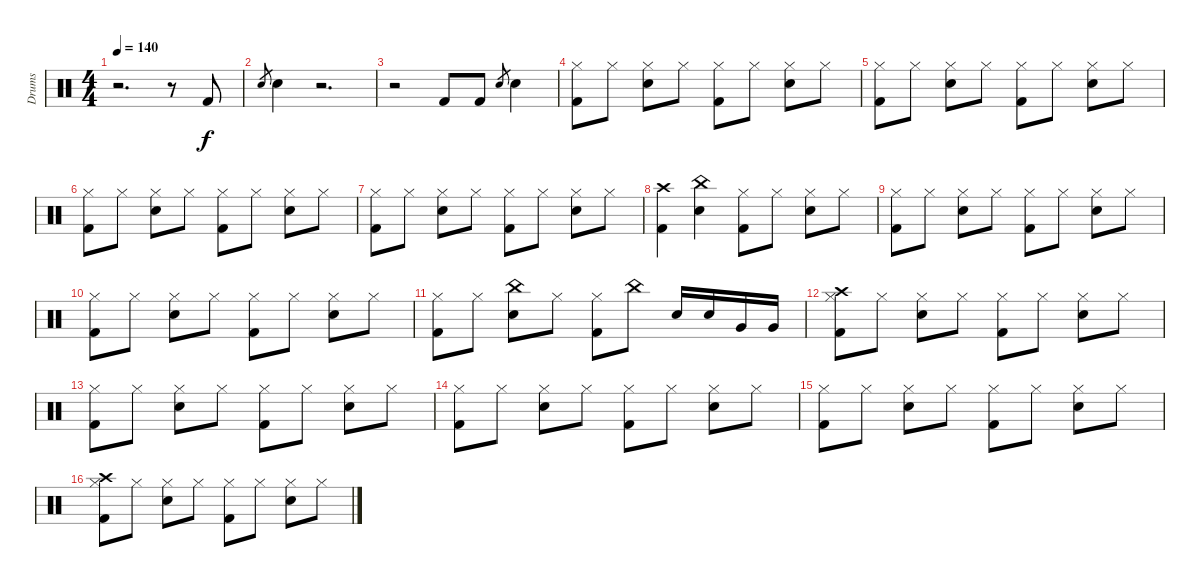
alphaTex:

\track ("Drums" "Drums") {instrument percussion}
\staff {score}
\articulation defaults
\ts (4 4)
\tempo 140
\clef neutral
\ks c
r.2{d dy f} r.8 "Kick (hit) 2".8 |
"Electric Snare (hit)".8{gr} "Electric Snare (hit)".4 r.2{d} |
r.2 "Kick (hit) 2".8 "Kick (hit) 2".8 "Electric Snare (hit)".8{gr} "Electric Snare (hit)".4 |
("Hi-Hat (closed)" "Kick (hit) 2").8 "Hi-Hat (closed)".8 ("Hi-Hat (closed)" "Electric Snare (hit)").8 "Hi-Hat (closed)".8 ("Hi-Hat (closed)" "Kick (hit) 2").8 "Hi-Hat (closed)".8 ("Hi-Hat (closed)" "Electric Snare (hit)").8 "Hi-Hat (closed)".8 |
("Hi-Hat (closed)" "Kick (hit) 2").8 "Hi-Hat (closed)".8 ("Hi-Hat (closed)" "Electric Snare (hit)").8 "Hi-Hat (closed)".8 ("Hi-Hat (closed)" "Kick (hit) 2").8 "Hi-Hat (closed)".8 ("Hi-Hat (closed)" "Electric Snare (hit)").8 "Hi-Hat (closed)".8 |
("Hi-Hat (closed)" "Kick (hit) 2").8 "Hi-Hat (closed)".8 ("Hi-Hat (closed)" "Electric Snare (hit)").8 "Hi-Hat (closed)".8 ("Hi-Hat (closed)" "Kick (hit) 2").8 "Hi-Hat (closed)".8 ("Hi-Hat (closed)" "Electric Snare (hit)").8 "Hi-Hat (closed)".8 |
("Hi-Hat (closed)" "Kick (hit) 2").8 "Hi-Hat (closed)".8 ("Hi-Hat (closed)" "Electric Snare (hit)").8 "Hi-Hat (closed)".8 ("Hi-Hat (closed)" "Kick (hit) 2").8 "Hi-Hat (closed)".8 ("Hi-Hat (closed)" "Electric Snare (hit)").8 "Hi-Hat (closed)".8 |
("Crash high (hit)" "Kick (hit) 2").4 ("China (hit)" "Electric Snare (hit)").4 ("Hi-Hat (closed)" "Kick (hit) 2").8 "Hi-Hat (closed)".8 ("Hi-Hat (closed)" "Electric Snare (hit)").8 "Hi-Hat (closed)".8 |
("Hi-Hat (closed)" "Kick (hit) 2").8 "Hi-Hat (closed)".8 ("Hi-Hat (closed)" "Electric Snare (hit)").8 "Hi-Hat (closed)".8 ("Hi-Hat (closed)" "Kick (hit) 2").8 "Hi-Hat (closed)".8 ("Hi-Hat (closed)" "Electric Snare (hit)").8 "Hi-Hat (closed)".8 |
("Hi-Hat (closed)" "Kick (hit) 2").8 "Hi-Hat (closed)".8 ("Hi-Hat (closed)" "Electric Snare (hit)").8 "Hi-Hat (closed)".8 ("Hi-Hat (closed)" "Kick (hit) 2").8 "Hi-Hat (closed)".8 ("Hi-Hat (closed)" "Electric Snare (hit)").8 "Hi-Hat (closed)".8 |
("Hi-Hat (closed)" "Kick (hit) 2").8 "Hi-Hat (closed)".8 ("China (hit)" "Electric Snare (hit)").8 "Hi-Hat (closed)".8 ("Hi-Hat (closed)" "Kick (hit) 2").8 "China (hit)".8 "Electric Snare (hit)".16 "Electric Snare (hit)".16 "Very Low Tom (hit)".16 "Very Low Tom (hit)".16 |
("Crash high (hit)" "Kick (hit) 2" "Hi-Hat (closed)").8 "Hi-Hat (closed)".8 ("Hi-Hat (closed)" "Electric Snare (hit)").8 "Hi-Hat (closed)".8 ("Hi-Hat (closed)" "Kick (hit) 2").8 "Hi-Hat (closed)".8 ("Hi-Hat (closed)" "Electric Snare (hit)").8 "Hi-Hat (closed)".8 |
("Hi-Hat (closed)" "Kick (hit) 2").8 "Hi-Hat (closed)".8 ("Hi-Hat (closed)" "Electric Snare (hit)").8 "Hi-Hat (closed)".8 ("Hi-Hat (closed)" "Kick (hit) 2").8 "Hi-Hat (closed)".8 ("Hi-Hat (closed)" "Electric Snare (hit)").8 "Hi-Hat (closed)".8 |
("Hi-Hat (closed)" "Kick (hit) 2").8 "Hi-Hat (closed)".8 ("Hi-Hat (closed)" "Electric Snare (hit)").8 "Hi-Hat (closed)".8 ("Hi-Hat (closed)" "Kick (hit) 2").8 "Hi-Hat (closed)".8 ("Hi-Hat (closed)" "Electric Snare (hit)").8 "Hi-Hat (closed)".8 |
("Hi-Hat (closed)" "Kick (hit) 2").8 "Hi-Hat (closed)".8 ("Hi-Hat (closed)" "Electric Snare (hit)").8 "Hi-Hat (closed)".8 ("Hi-Hat (closed)" "Kick (hit) 2").8 "Hi-Hat (closed)".8 ("Hi-Hat (closed)" "Electric Snare (hit)").8 "Hi-Hat (closed)".8 |
("Crash high (hit)" "Kick (hit) 2" "Hi-Hat (closed)").8 "Hi-Hat (closed)".8 ("Hi-Hat (closed)" "Electric Snare (hit)").8 "Hi-Hat (closed)".8 ("Hi-Hat (closed)" "Kick (hit) 2").8 "Hi-Hat (closed)".8 ("Hi-Hat (closed)" "Electric Snare (hit)").8 "Hi-Hat (closed)".8
